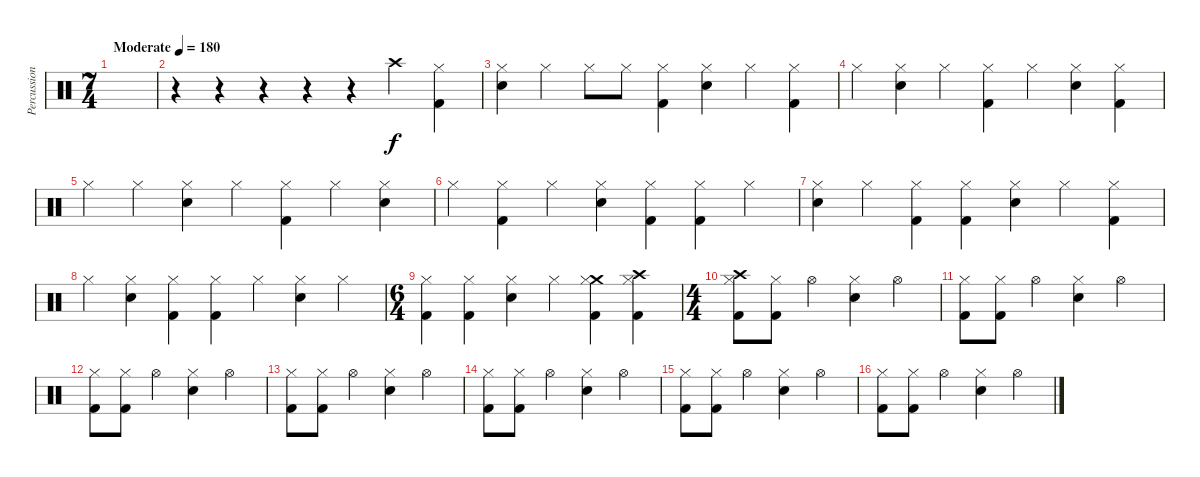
\track ("Percussions" "Percussion") {instrument percussion}
\staff {score}
\articulation defaults
\ts (7 4)
\tempo (180 "Moderate")
\clef neutral
\ks c
|
r.4 r.4 r.4 r.4 r.4 "Crash high (hit)".4 ("Hi-Hat (closed)" "Kick (hit) 2").4 |
("Hi-Hat (closed)" "Snare (hit) 2").4 "Hi-Hat (closed)".4 "Hi-Hat (closed)".8 "Hi-Hat (closed)".8 ("Hi-Hat (closed)" "Kick (hit) 2").4 ("Hi-Hat (closed)" "Snare (hit) 2").4 "Hi-Hat (closed)".4 ("Hi-Hat (closed)" "Kick (hit) 2").4 |
"Hi-Hat (closed)".4 ("Hi-Hat (closed)" "Snare (hit) 2").4 "Hi-Hat (closed)".4 ("Hi-Hat (closed)" "Kick (hit) 2").4 "Hi-Hat (closed)".4 ("Hi-Hat (closed)" "Snare (hit) 2").4 ("Hi-Hat (closed)" "Kick (hit) 2").4 |
"Hi-Hat (closed)".4 "Hi-Hat (closed)".4 ("Hi-Hat (closed)" "Snare (hit) 2").4 "Hi-Hat (closed)".4 ("Hi-Hat (closed)" "Kick (hit) 2").4 "Hi-Hat (closed)".4 ("Hi-Hat (closed)" "Snare (hit) 2").4 |
"Hi-Hat (closed)".4 ("Hi-Hat (closed)" "Kick (hit) 2").4 "Hi-Hat (closed)".4 ("Hi-Hat (closed)" "Snare (hit) 2").4 ("Hi-Hat (closed)" "Kick (hit) 2").4 ("Hi-Hat (closed)" "Kick (hit) 2").4 "Hi-Hat (closed)".4 |
("Hi-Hat (closed)" "Snare (hit) 2").4 "Hi-Hat (closed)".4 ("Hi-Hat (closed)" "Kick (hit) 2").4 ("Hi-Hat (closed)" "Kick (hit) 2").4 ("Hi-Hat (closed)" "Snare (hit) 2").4 "Hi-Hat (closed)".4 ("Hi-Hat (closed)" "Kick (hit) 2").4 |
"Hi-Hat (closed)".4 ("Hi-Hat (closed)" "Snare (hit) 2").4 ("Hi-Hat (closed)" "Kick (hit) 2").4 ("Hi-Hat (closed)" "Kick (hit) 2").4 "Hi-Hat (closed)".4 ("Hi-Hat (closed)" "Snare (hit) 2").4 "Hi-Hat (closed)".4 |
\ts (6 4)
("Hi-Hat (closed)" "Kick (hit) 2").4 ("Hi-Hat (closed)" "Kick (hit) 2").4 ("Hi-Hat (closed)" "Snare (hit) 2").4 "Hi-Hat (closed)".4 ("Crash medium (hit)" "Hi-Hat (closed)" "Kick (hit) 2").4 ("Crash high (hit)" "Hi-Hat (closed)" "Kick (hit) 2").4 |
\ts (4 4)
("Crash high (hit)" "Hi-Hat (closed)" "Kick (hit) 2").8 ("Hi-Hat (closed)" "Kick (hit) 2").8 "Hi-Hat (open)".4 ("Hi-Hat (closed)" "Snare (hit) 2").4 "Hi-Hat (open)".4 |
("Hi-Hat (closed)" "Kick (hit) 2").8 ("Hi-Hat (closed)" "Kick (hit) 2").8 "Hi-Hat (open)".4 ("Hi-Hat (closed)" "Snare (hit) 2").4 "Hi-Hat (open)".4 |
("Hi-Hat (closed)" "Kick (hit) 2").8 ("Hi-Hat (closed)" "Kick (hit) 2").8 "Hi-Hat (open)".4 ("Hi-Hat (closed)" "Snare (hit) 2").4 "Hi-Hat (open)".4 |
("Hi-Hat (closed)" "Kick (hit) 2").8 ("Hi-Hat (closed)" "Kick (hit) 2").8 "Hi-Hat (open)".4 ("Hi-Hat (closed)" "Snare (hit) 2").4 "Hi-Hat (open)".4 |
("Hi-Hat (closed)" "Kick (hit) 2").8 ("Hi-Hat (closed)" "Kick (hit) 2").8 "Hi-Hat (open)".4 ("Hi-Hat (closed)" "Snare (hit) 2").4 "Hi-Hat (open)".4 |
("Hi-Hat (closed)" "Kick (hit) 2").8 ("Hi-Hat (closed)" "Kick (hit) 2").8 "Hi-Hat (open)".4 ("Hi-Hat (closed)" "Snare (hit) 2").4 "Hi-Hat (open)".4 |
("Hi-Hat (closed)" "Kick (hit) 2").8 ("Hi-Hat (closed)" "Kick (hit) 2").8 "Hi-Hat (open)".4 ("Hi-Hat (closed)" "Snare (hit) 2").4 "Hi-Hat (open)".4
